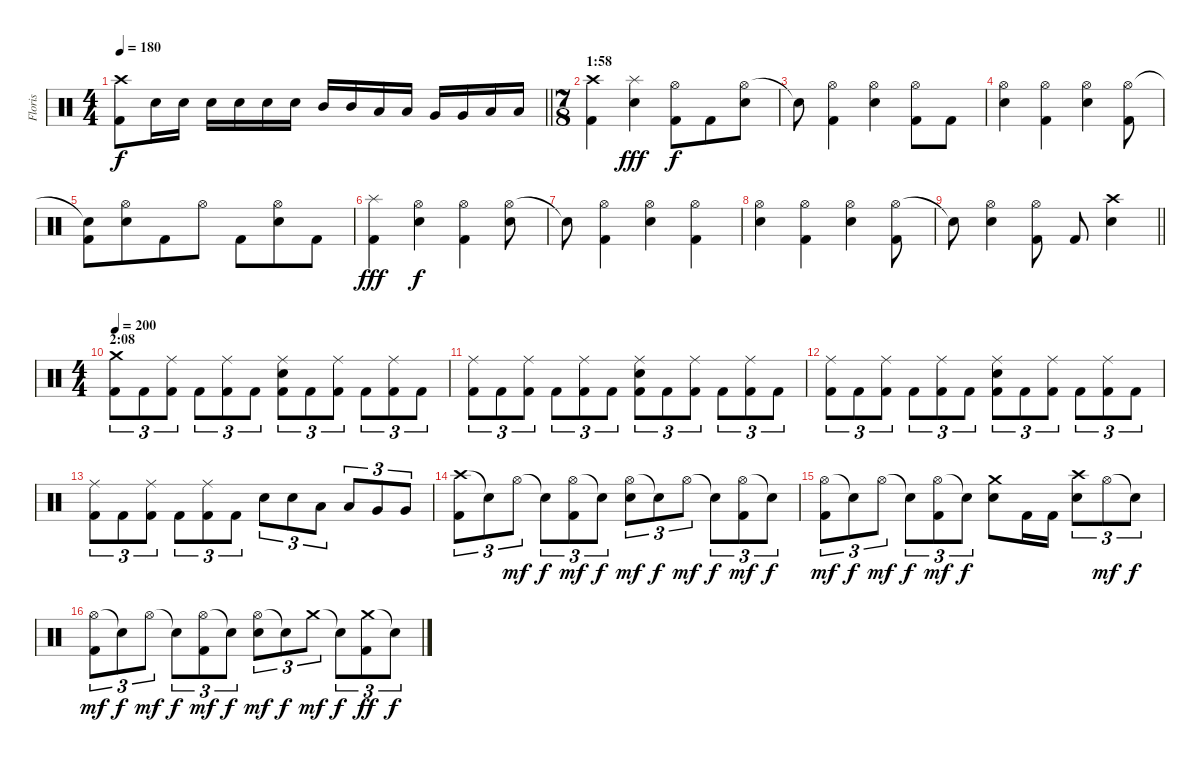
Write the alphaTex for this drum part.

\track ("Floris" "Floris") {instrument percussion}
\staff {score}
\articulation defaults
\ts (4 4)
\tempo 180
\clef neutral
\barLineRight lightlight
\ks c
("Crash high (hit)" "Kick (hit) 2").8{dy f} "Electric Snare (hit)".16 "Electric Snare (hit)".16 "Electric Snare (hit)".16 "Electric Snare (hit)".16 "Electric Snare (hit)".16 "Electric Snare (hit)".16 "Mid Tom (hit)".16 "Mid Tom (hit)".16 "Low Tom (hit)".16 "Low Tom (hit)".16 "Very Low Tom (hit)".16 "Very Low Tom (hit)".16 "Low Floor Tom (hit)".16 "Low Floor Tom (hit)".16 |
\ts (7 8)
\section ("" "1:58")
("Crash high (hit)" "Kick (hit) 2").4 ("Splash (hit)" "Electric Snare (hit)").4{dy fff} ("Hi-Hat (open)" "Kick (hit) 2").8{dy f} "Kick (hit) 2".8 ("Hi-Hat (open)" "Electric Snare (hit)").8 |
"Snare (hit)"{t}.8 ("Hi-Hat (open)" "Kick (hit) 2").4 ("Hi-Hat (open)" "Electric Snare (hit)").4 ("Hi-Hat (open)" "Kick (hit) 2").8 "Kick (hit) 2".8 |
("Hi-Hat (open)" "Electric Snare (hit)").4 ("Hi-Hat (open)" "Kick (hit) 2").4 ("Hi-Hat (open)" "Electric Snare (hit)").4 ("Hi-Hat (open)" "Kick (hit) 2").8 |
("Snare (hit)"{t} "Kick (hit) 2").8 ("Hi-Hat (open)" "Electric Snare (hit)").8 "Kick (hit) 2".8 "Hi-Hat (open)".8 "Kick (hit) 2".8 ("Hi-Hat (open)" "Electric Snare (hit)").8 "Kick (hit) 2".8 |
("Splash (hit)" "Kick (hit) 2").4{dy fff} ("Hi-Hat (open)" "Electric Snare (hit)").4{dy f} ("Hi-Hat (open)" "Kick (hit) 2").4 ("Hi-Hat (open)" "Electric Snare (hit)").8 |
"Snare (hit)"{t}.8 ("Hi-Hat (open)" "Kick (hit) 2").4 ("Hi-Hat (open)" "Electric Snare (hit)").4 ("Hi-Hat (open)" "Kick (hit) 2").4 |
("Hi-Hat (open)" "Electric Snare (hit)").4 ("Hi-Hat (open)" "Kick (hit) 2").4 ("Hi-Hat (open)" "Electric Snare (hit)").4 ("Hi-Hat (open)" "Kick (hit) 2").8 |
\barLineRight lightlight "Snare (hit)"{t}.8
("Hi-Hat (open)" "Electric Snare (hit)").4 ("Hi-Hat (open)" "Kick (hit) 2").8 "Kick (hit) 2".8 ("Crash high (hit)" "Electric Snare (hit)").4 |
\ts (4 4)
\section ("" "2:08")
\tempo 200
("Crash medium (hit)" "Kick (hit) 2").8{tu (3 2)} "Kick (hit) 2".8{tu (3 2)} ("Ride (middle)" "Kick (hit) 2").8{tu (3 2)} "Kick (hit) 2".8{tu (3 2)} ("Ride (middle)" "Kick (hit) 2").8{tu (3 2)} "Kick (hit) 2".8{tu (3 2)} ("Ride (middle)" "Electric Snare (hit)" "Kick (hit) 2").8{tu (3 2)} "Kick (hit) 2".8{tu (3 2)} ("Ride (middle)" "Kick (hit) 2").8{tu (3 2)} "Kick (hit) 2".8{tu (3 2)} ("Ride (middle)" "Kick (hit) 2").8{tu (3 2)} "Kick (hit) 2".8{tu (3 2)} |
("Ride (middle)" "Kick (hit) 2").8{tu (3 2)} "Kick (hit) 2".8{tu (3 2)} ("Ride (middle)" "Kick (hit) 2").8{tu (3 2)} "Kick (hit) 2".8{tu (3 2)} ("Ride (middle)" "Kick (hit) 2").8{tu (3 2)} "Kick (hit) 2".8{tu (3 2)} ("Ride (middle)" "Electric Snare (hit)" "Kick (hit) 2").8{tu (3 2)} "Kick (hit) 2".8{tu (3 2)} ("Ride (middle)" "Kick (hit) 2").8{tu (3 2)} "Kick (hit) 2".8{tu (3 2)} ("Ride (middle)" "Kick (hit) 2").8{tu (3 2)} "Kick (hit) 2".8{tu (3 2)} |
("Ride (middle)" "Kick (hit) 2").8{tu (3 2)} "Kick (hit) 2".8{tu (3 2)} ("Ride (middle)" "Kick (hit) 2").8{tu (3 2)} "Kick (hit) 2".8{tu (3 2)} ("Ride (middle)" "Kick (hit) 2").8{tu (3 2)} "Kick (hit) 2".8{tu (3 2)} ("Ride (middle)" "Electric Snare (hit)" "Kick (hit) 2").8{tu (3 2)} "Kick (hit) 2".8{tu (3 2)} ("Ride (middle)" "Kick (hit) 2").8{tu (3 2)} "Kick (hit) 2".8{tu (3 2)} ("Ride (middle)" "Kick (hit) 2").8{tu (3 2)} "Kick (hit) 2".8{tu (3 2)} |
("Ride (middle)" "Kick (hit) 2").8{tu (3 2)} "Kick (hit) 2".8{tu (3 2)} ("Ride (middle)" "Kick (hit) 2").8{tu (3 2)} "Kick (hit) 2".8{tu (3 2)} ("Ride (middle)" "Kick (hit) 2").8{tu (3 2)} "Kick (hit) 2".8{tu (3 2)} "Electric Snare (hit)".8{tu (3 2)} "Electric Snare (hit)".8{tu (3 2)} "Low Tom (hit)".8{tu (3 2)} "Low Tom (hit)".8{tu (3 2)} "Very Low Tom (hit)".8{tu (3 2)} "Very Low Tom (hit)".8{tu (3 2)} |
("Crash high (hit)" "Kick (hit) 2").8{tu (3 2)} "Snare (hit)"{t}.8{tu (3 2)} "Hi-Hat (open)".8{tu (3 2) dy mf} "Snare (hit)"{t}.8{tu (3 2) dy f} ("Hi-Hat (open)" "Kick (hit) 2").8{tu (3 2) dy mf} "Snare (hit)"{t}.8{tu (3 2) dy f} ("Hi-Hat (open)" "Electric Snare (hit)").8{tu (3 2) dy mf} "Snare (hit)"{t}.8{tu (3 2) dy f} "Hi-Hat (open)".8{tu (3 2) dy mf} "Snare (hit)"{t}.8{tu (3 2) dy f} ("Hi-Hat (open)" "Kick (hit) 2").8{tu (3 2) dy mf} "Snare (hit)"{t}.8{tu (3 2) dy f} |
("Hi-Hat (open)" "Kick (hit) 2").8{tu (3 2) dy mf} "Snare (hit)"{t}.8{tu (3 2) dy f} "Hi-Hat (open)".8{tu (3 2) dy mf} "Snare (hit)"{t}.8{tu (3 2) dy f} ("Hi-Hat (open)" "Kick (hit) 2").8{tu (3 2) dy mf} "Snare (hit)"{t}.8{tu (3 2) dy f} ("Crash medium (hit)" "Electric Snare (hit)").8 "Kick (hit) 2".16 "Kick (hit) 2".16 ("Crash high (hit)" "Electric Snare (hit)").8{tu (3 2)} "Hi-Hat (open)".8{tu (3 2) dy mf} "Snare (hit)"{t}.8{tu (3 2) dy f} |
("Hi-Hat (open)" "Kick (hit) 2").8{tu (3 2) dy mf} "Snare (hit)"{t}.8{tu (3 2) dy f} "Hi-Hat (open)".8{tu (3 2) dy mf} "Snare (hit)"{t}.8{tu (3 2) dy f} ("Hi-Hat (open)" "Kick (hit) 2").8{tu (3 2) dy mf} "Snare (hit)"{t}.8{tu (3 2) dy f} ("Hi-Hat (open)" "Electric Snare (hit)").8{tu (3 2) dy mf} "Snare (hit)"{t}.8{tu (3 2) dy f} "Crash medium (hit)".8{tu (3 2) dy mf} "Snare (hit)"{t}.8{tu (3 2) dy f} ("Crash medium (hit)" "Kick (hit) 2").8{tu (3 2) dy ff} "Snare (hit)"{t}.8{tu (3 2) dy f}
